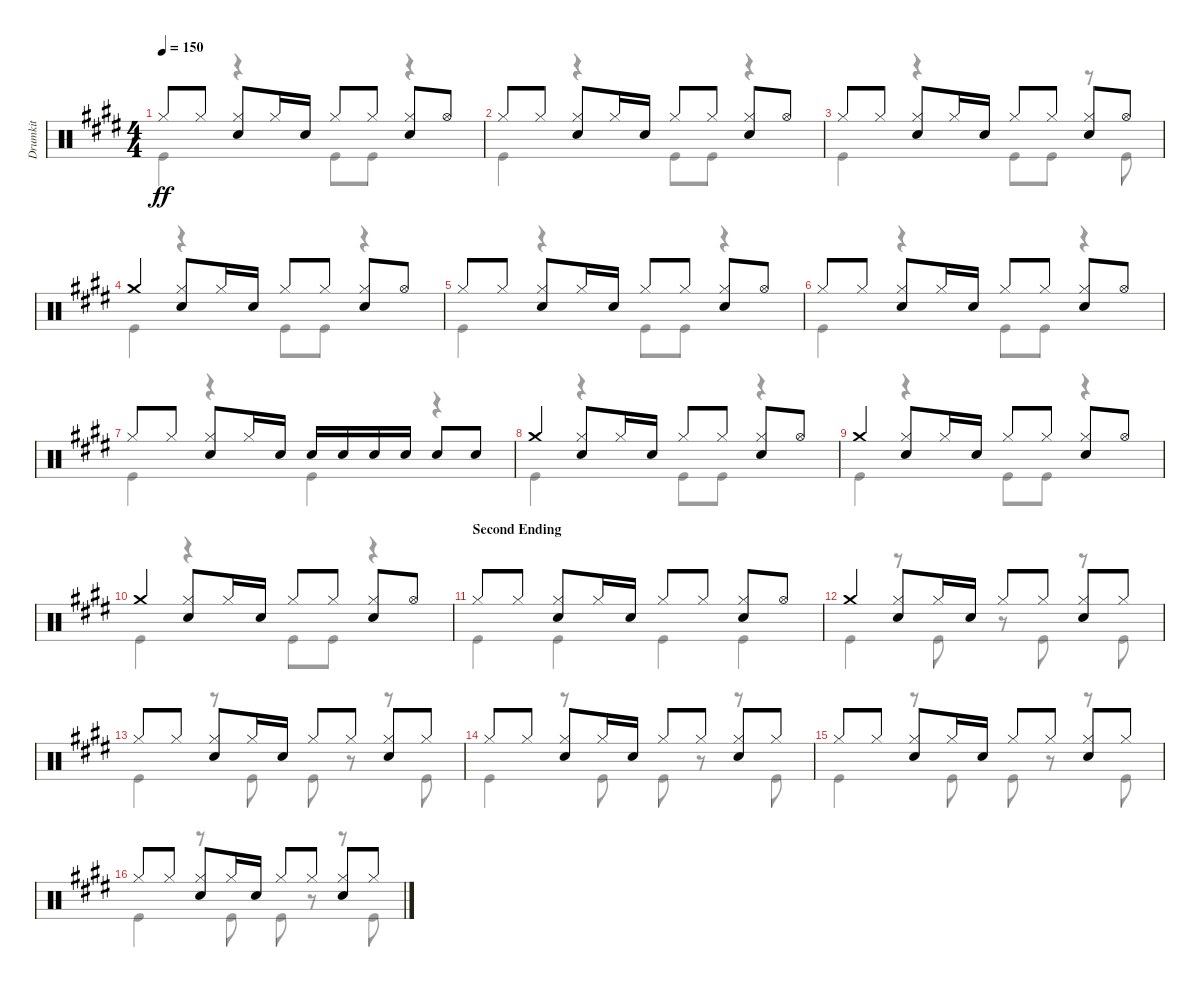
\track ("Drumkit" "Drumkit") {instrument percussion}
\staff {score}
\articulation defaults
\voice
\ts (4 4)
\tempo 150
\clef neutral
\ks e "Hi-Hat (closed)".8{dy ff} "Hi-Hat (closed)".8
("Hi-Hat (closed)" "Snare (hit) 2").8 "Hi-Hat (closed)".16 "Snare (hit) 2".16 "Hi-Hat (closed)".8 "Hi-Hat (closed)".8 ("Hi-Hat (closed)" "Snare (hit) 2").8 "Hi-Hat (open)".8 |
"Hi-Hat (closed)".8 "Hi-Hat (closed)".8 ("Hi-Hat (closed)" "Snare (hit) 2").8 "Hi-Hat (closed)".16 "Snare (hit) 2".16 "Hi-Hat (closed)".8 "Hi-Hat (closed)".8 ("Hi-Hat (closed)" "Snare (hit) 2").8 "Hi-Hat (open)".8 |
"Hi-Hat (closed)".8 "Hi-Hat (closed)".8 ("Hi-Hat (closed)" "Snare (hit) 2").8 "Hi-Hat (closed)".16 "Snare (hit) 2".16 "Hi-Hat (closed)".8 "Hi-Hat (closed)".8 ("Hi-Hat (closed)" "Snare (hit) 2").8 "Hi-Hat (open)".8 |
"Crash medium (hit)".4 ("Hi-Hat (closed)" "Snare (hit) 2").8 "Hi-Hat (closed)".16 "Snare (hit) 2".16 "Hi-Hat (closed)".8 "Hi-Hat (closed)".8 ("Hi-Hat (closed)" "Snare (hit) 2").8 "Hi-Hat (open)".8 |
"Hi-Hat (closed)".8 "Hi-Hat (closed)".8 ("Hi-Hat (closed)" "Snare (hit) 2").8 "Hi-Hat (closed)".16 "Snare (hit) 2".16 "Hi-Hat (closed)".8 "Hi-Hat (closed)".8 ("Hi-Hat (closed)" "Snare (hit) 2").8 "Hi-Hat (open)".8 |
"Hi-Hat (closed)".8 "Hi-Hat (closed)".8 ("Hi-Hat (closed)" "Snare (hit) 2").8 "Hi-Hat (closed)".16 "Snare (hit) 2".16 "Hi-Hat (closed)".8 "Hi-Hat (closed)".8 ("Hi-Hat (closed)" "Snare (hit) 2").8 "Hi-Hat (open)".8 |
"Hi-Hat (closed)".8 "Hi-Hat (closed)".8 ("Hi-Hat (closed)" "Snare (hit) 2").8 "Hi-Hat (closed)".16 "Snare (hit) 2".16 "Snare (hit) 2".16 "Snare (hit) 2".16 "Snare (hit) 2".16 "Snare (hit) 2".16 "Snare (hit) 2".8 "Snare (hit) 2".8 |
"Crash medium (hit)".4 ("Hi-Hat (closed)" "Snare (hit) 2").8 "Hi-Hat (closed)".16 "Snare (hit) 2".16 "Hi-Hat (closed)".8 "Hi-Hat (closed)".8 ("Hi-Hat (closed)" "Snare (hit) 2").8 "Hi-Hat (open)".8 |
"Crash medium (hit)".4 ("Hi-Hat (closed)" "Snare (hit) 2").8 "Hi-Hat (closed)".16 "Snare (hit) 2".16 "Hi-Hat (closed)".8 "Hi-Hat (closed)".8 ("Hi-Hat (closed)" "Snare (hit) 2").8 "Hi-Hat (open)".8 |
"Crash medium (hit)".4 ("Hi-Hat (closed)" "Snare (hit) 2").8 "Hi-Hat (closed)".16 "Snare (hit) 2".16 "Hi-Hat (closed)".8 "Hi-Hat (closed)".8 ("Hi-Hat (closed)" "Snare (hit) 2").8 "Hi-Hat (open)".8 |
\section ("" "Second Ending")
"Hi-Hat (closed)".8 "Hi-Hat (closed)".8 ("Hi-Hat (closed)" "Snare (hit) 2").8 "Hi-Hat (closed)".16 "Snare (hit) 2".16 "Hi-Hat (closed)".8 "Hi-Hat (closed)".8 ("Hi-Hat (closed)" "Snare (hit) 2").8 "Hi-Hat (open)".8 |
\section ("" "")
"Crash medium (hit)".4 ("Snare (hit) 2" "Hi-Hat (closed)").8 "Hi-Hat (closed)".16 "Snare (hit) 2".16 "Hi-Hat (closed)".8 "Hi-Hat (closed)".8 ("Hi-Hat (closed)" "Snare (hit) 2").8 "Hi-Hat (closed)".8 |
"Hi-Hat (closed)".8 "Hi-Hat (closed)".8 ("Hi-Hat (closed)" "Snare (hit) 2").8 "Hi-Hat (closed)".16 "Snare (hit) 2".16 "Hi-Hat (closed)".8 "Hi-Hat (closed)".8 ("Hi-Hat (closed)" "Snare (hit) 2").8 "Hi-Hat (closed)".8 |
"Hi-Hat (closed)".8 "Hi-Hat (closed)".8 ("Hi-Hat (closed)" "Snare (hit) 2").8 "Hi-Hat (closed)".16 "Snare (hit) 2".16 "Hi-Hat (closed)".8 "Hi-Hat (closed)".8 ("Hi-Hat (closed)" "Snare (hit) 2").8 "Hi-Hat (closed)".8 |
"Hi-Hat (closed)".8 "Hi-Hat (closed)".8 ("Hi-Hat (closed)" "Snare (hit) 2").8 "Hi-Hat (closed)".16 "Snare (hit) 2".16 "Hi-Hat (closed)".8 "Hi-Hat (closed)".8 ("Hi-Hat (closed)" "Snare (hit) 2").8 "Hi-Hat (closed)".8 |
"Hi-Hat (closed)".8 "Hi-Hat (closed)".8 ("Hi-Hat (closed)" "Snare (hit) 2").8 "Hi-Hat (closed)".16 "Snare (hit) 2".16 "Hi-Hat (closed)".8 "Hi-Hat (closed)".8 ("Hi-Hat (closed)" "Snare (hit) 2").8 "Hi-Hat (closed)".8
\voice
\clef neutral
\ottava regular
\simile none
\ks e "Kick (hit)".4{dy ff}
r.4 "Kick (hit)".8 "Kick (hit)".8 r.4 |
"Kick (hit)".4 r.4 "Kick (hit)".8 "Kick (hit)".8 r.4 |
"Kick (hit)".4 r.4 "Kick (hit)".8 "Kick (hit)".8 r.8 "Kick (hit)".8 |
"Kick (hit)".4 r.4 "Kick (hit)".8 "Kick (hit)".8 r.4 |
"Kick (hit)".4 r.4 "Kick (hit)".8 "Kick (hit)".8 r.4 |
"Kick (hit)".4 r.4 "Kick (hit)".8 "Kick (hit)".8 r.4 |
"Kick (hit)".4 r.4 "Kick (hit)".4 r.4 |
"Kick (hit)".4 r.4 "Kick (hit)".8 "Kick (hit)".8 r.4 |
"Kick (hit)".4 r.4 "Kick (hit)".8 "Kick (hit)".8 r.4 |
"Kick (hit)".4 r.4 "Kick (hit)".8 "Kick (hit)".8 r.4 |
"Kick (hit)".4 "Kick (hit)".4 "Kick (hit)".4 "Kick (hit)".4 |
"Kick (hit)".4 r.8 "Kick (hit)".8 r.8 "Kick (hit)".8 r.8 "Kick (hit)".8 |
"Kick (hit)".4 r.8 "Kick (hit)".8 "Kick (hit)".8 r.8 r.8 "Kick (hit)".8 |
"Kick (hit)".4 r.8 "Kick (hit)".8 "Kick (hit)".8 r.8 r.8 "Kick (hit)".8 |
"Kick (hit)".4 r.8 "Kick (hit)".8 "Kick (hit)".8 r.8 r.8 "Kick (hit)".8 |
"Kick (hit)".4 r.8 "Kick (hit)".8 "Kick (hit)".8 r.8 r.8 "Kick (hit)".8
